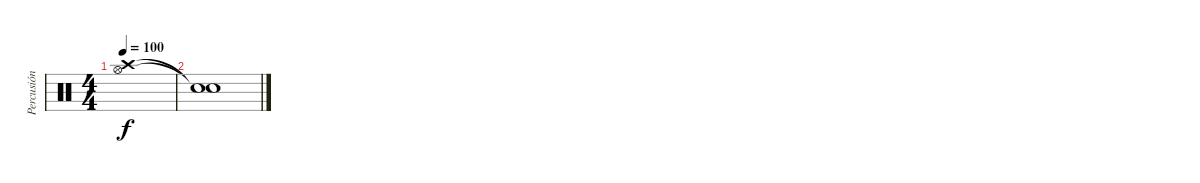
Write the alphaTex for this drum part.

\track ("Percusión" "Percusión") {instrument percussion}
\staff {score}
\articulation defaults
\ts (4 4)
\tempo 100
\clef neutral
\ks c
("Hi-Hat (open)" "Crash high (hit)").1{dy f} |
("Snare (hit)"{t} "Snare (hit)"{t}).1
